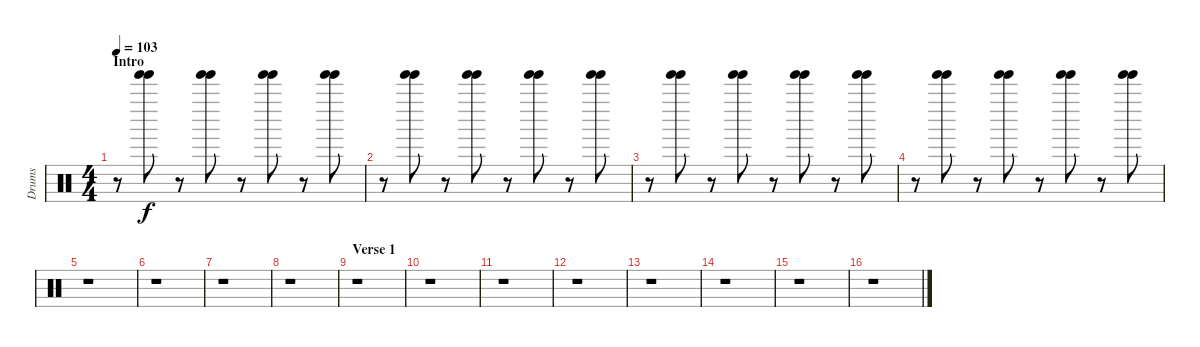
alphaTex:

\track ("Drums" "Drums") {instrument percussion}
\staff {score}
\articulation defaults
\ts (4 4)
\section ("" "Intro")
\tempo 103
\clef neutral
\ks c
r.8{dy f} ("Tinkle Bell (hit)" "Tinkle Bell (hit)").8 r.8 ("Tinkle Bell (hit)" "Tinkle Bell (hit)").8 r.8 ("Tinkle Bell (hit)" "Tinkle Bell (hit)").8 r.8 ("Tinkle Bell (hit)" "Tinkle Bell (hit)").8 |
r.8 ("Tinkle Bell (hit)" "Tinkle Bell (hit)").8 r.8 ("Tinkle Bell (hit)" "Tinkle Bell (hit)").8 r.8 ("Tinkle Bell (hit)" "Tinkle Bell (hit)").8 r.8 ("Tinkle Bell (hit)" "Tinkle Bell (hit)").8 |
r.8 ("Tinkle Bell (hit)" "Tinkle Bell (hit)").8 r.8 ("Tinkle Bell (hit)" "Tinkle Bell (hit)").8 r.8 ("Tinkle Bell (hit)" "Tinkle Bell (hit)").8 r.8 ("Tinkle Bell (hit)" "Tinkle Bell (hit)").8 |
r.8 ("Tinkle Bell (hit)" "Tinkle Bell (hit)").8 r.8 ("Tinkle Bell (hit)" "Tinkle Bell (hit)").8 r.8 ("Tinkle Bell (hit)" "Tinkle Bell (hit)").8 r.8 ("Tinkle Bell (hit)" "Tinkle Bell (hit)").8 |
r.1 |
r.1 |
r.1 |
r.1 |
\section ("" "Verse 1")
r.1 |
r.1 |
r.1 |
r.1 |
r.1 |
r.1 |
r.1 |
r.1
